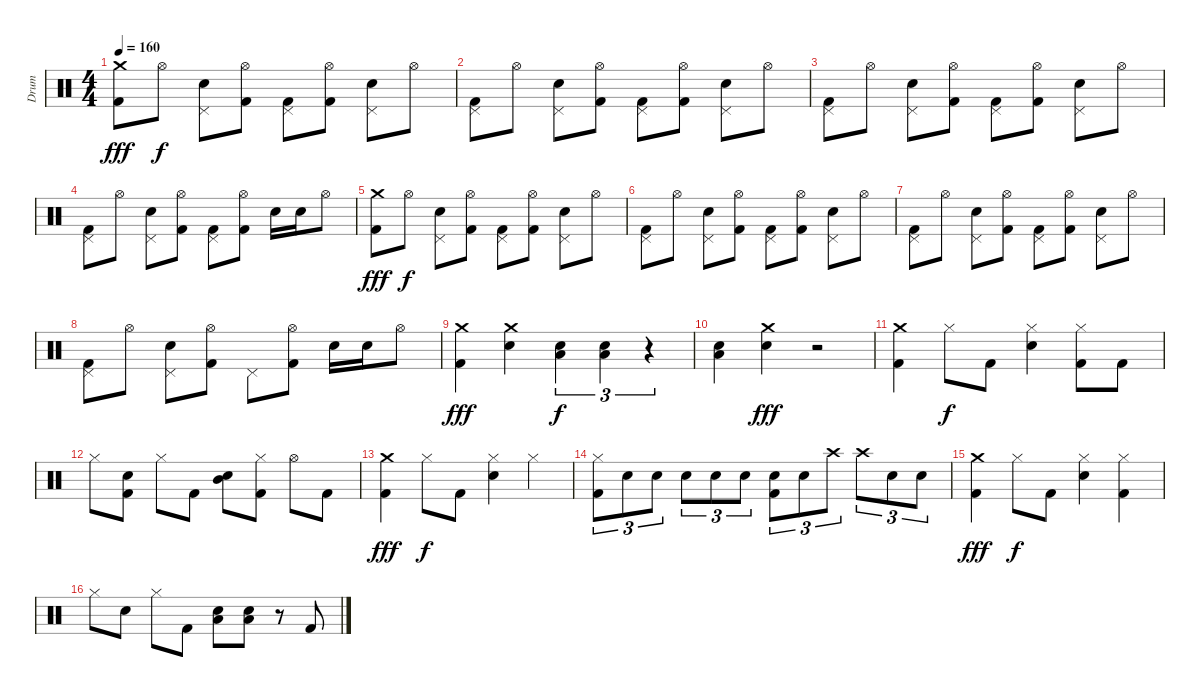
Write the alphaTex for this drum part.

\track ("Drum" "Drum") {instrument percussion}
\staff {score}
\articulation defaults
\ts (4 4)
\tempo 160
\clef neutral
\ks c
("Crash medium (hit)" "Kick (hit) 2").8{dy fff} "Hi-Hat (open)".8{dy f} ("Pedal Hi-Hat (hit)" "Snare (hit) 2").8 ("Hi-Hat (open)" "Kick (hit) 2").8 ("Pedal Hi-Hat (hit)" "Kick (hit) 2").8 ("Hi-Hat (open)" "Kick (hit) 2").8 ("Pedal Hi-Hat (hit)" "Snare (hit) 2").8 "Hi-Hat (open)".8 |
("Pedal Hi-Hat (hit)" "Kick (hit) 2").8 "Hi-Hat (open)".8 ("Pedal Hi-Hat (hit)" "Snare (hit) 2").8 ("Hi-Hat (open)" "Kick (hit) 2").8 ("Pedal Hi-Hat (hit)" "Kick (hit) 2").8 ("Hi-Hat (open)" "Kick (hit) 2").8 ("Pedal Hi-Hat (hit)" "Snare (hit) 2").8 "Hi-Hat (open)".8 |
("Pedal Hi-Hat (hit)" "Kick (hit) 2").8 "Hi-Hat (open)".8 ("Pedal Hi-Hat (hit)" "Snare (hit) 2").8 ("Hi-Hat (open)" "Kick (hit) 2").8 ("Pedal Hi-Hat (hit)" "Kick (hit) 2").8 ("Hi-Hat (open)" "Kick (hit) 2").8 ("Pedal Hi-Hat (hit)" "Snare (hit) 2").8 "Hi-Hat (open)".8 |
("Pedal Hi-Hat (hit)" "Kick (hit) 2").8 "Hi-Hat (open)".8 ("Pedal Hi-Hat (hit)" "Snare (hit) 2").8 ("Hi-Hat (open)" "Kick (hit) 2").8 ("Pedal Hi-Hat (hit)" "Kick (hit) 2").8 ("Hi-Hat (open)" "Kick (hit) 2").8 "Snare (hit) 2".16 "Snare (hit) 2".16 "Hi-Hat (open)".8 |
("Crash medium (hit)" "Kick (hit) 2").8{dy fff} "Hi-Hat (open)".8{dy f} ("Pedal Hi-Hat (hit)" "Snare (hit) 2").8 ("Hi-Hat (open)" "Kick (hit) 2").8 ("Pedal Hi-Hat (hit)" "Kick (hit) 2").8 ("Hi-Hat (open)" "Kick (hit) 2").8 ("Pedal Hi-Hat (hit)" "Snare (hit) 2").8 "Hi-Hat (open)".8 |
("Pedal Hi-Hat (hit)" "Kick (hit) 2").8 "Hi-Hat (open)".8 ("Pedal Hi-Hat (hit)" "Snare (hit) 2").8 ("Hi-Hat (open)" "Kick (hit) 2").8 ("Pedal Hi-Hat (hit)" "Kick (hit) 2").8 ("Hi-Hat (open)" "Kick (hit) 2").8 ("Pedal Hi-Hat (hit)" "Snare (hit) 2").8 "Hi-Hat (open)".8 |
("Pedal Hi-Hat (hit)" "Kick (hit) 2").8 "Hi-Hat (open)".8 ("Pedal Hi-Hat (hit)" "Snare (hit) 2").8 ("Hi-Hat (open)" "Kick (hit) 2").8 ("Pedal Hi-Hat (hit)" "Kick (hit) 2").8 ("Hi-Hat (open)" "Kick (hit) 2").8 ("Pedal Hi-Hat (hit)" "Snare (hit) 2").8 "Hi-Hat (open)".8 |
("Pedal Hi-Hat (hit)" "Kick (hit) 2").8 "Hi-Hat (open)".8 ("Pedal Hi-Hat (hit)" "Snare (hit) 2").8 ("Hi-Hat (open)" "Kick (hit) 2").8 "Pedal Hi-Hat (hit)".8 ("Hi-Hat (open)" "Kick (hit) 2").8 "Snare (hit) 2".16 "Snare (hit) 2".16 "Hi-Hat (open)".8 |
("Crash medium (hit)" "Kick (hit) 2").4{dy fff} ("Crash medium (hit)" "Snare (hit) 2").4 ("Snare (hit) 2" "Low Tom (hit)").4{tu (3 2) dy f} ("Snare (hit) 2" "Low Tom (hit)").4{tu (3 2)} r.4{tu (3 2)} |
("Snare (hit) 2" "Low Tom (hit)").4 ("Crash medium (hit)" "Snare (hit) 2").4{dy fff} r.2 |
("Crash medium (hit)" "Kick (hit) 2").4 "Hi-Hat (closed)".8{dy f} "Kick (hit) 2".8 ("Hi-Hat (closed)" "Snare (hit) 2").4 ("Hi-Hat (closed)" "Kick (hit) 2").8 "Kick (hit) 2".8 |
"Hi-Hat (closed)".8 ("Snare (hit) 2" "Kick (hit) 2").8 "Hi-Hat (closed)".8 "Kick (hit) 2".8 ("Snare (hit) 2" "Mid Tom (hit)").8 ("Hi-Hat (closed)" "Kick (hit) 2").8 "Hi-Hat (open)".8 "Kick (hit) 2".8 |
("Crash medium (hit)" "Kick (hit) 2").4{dy fff} "Hi-Hat (closed)".8{dy f} "Kick (hit) 2".8 ("Hi-Hat (closed)" "Snare (hit) 2").4 "Hi-Hat (closed)".4 |
("Hi-Hat (closed)" "Kick (hit) 2").8{tu (3 2)} "Snare (hit) 2".8{tu (3 2)} "Snare (hit) 2".8{tu (3 2)} "Snare (hit) 2".8{tu (3 2)} "Snare (hit) 2".8{tu (3 2)} "Snare (hit) 2".8{tu (3 2)} ("Snare (hit) 2" "Kick (hit) 2").8{tu (3 2)} "Snare (hit) 2".8{tu (3 2)} "Crash high (hit)".8{tu (3 2)} "Crash high (hit)".8{tu (3 2)} "Snare (hit) 2".8{tu (3 2)} "Snare (hit) 2".8{tu (3 2)} |
("Crash medium (hit)" "Kick (hit) 2").4{dy fff} "Hi-Hat (closed)".8{dy f} "Kick (hit) 2".8 ("Hi-Hat (closed)" "Snare (hit) 2").4 ("Hi-Hat (closed)" "Kick (hit) 2").4 |
"Hi-Hat (closed)".8 "Snare (hit) 2".8 "Hi-Hat (closed)".8 "Kick (hit) 2".8 ("Snare (hit) 2" "Low Tom (hit)").8 ("Snare (hit) 2" "Low Tom (hit)").8 r.8 "Kick (hit) 2".8
